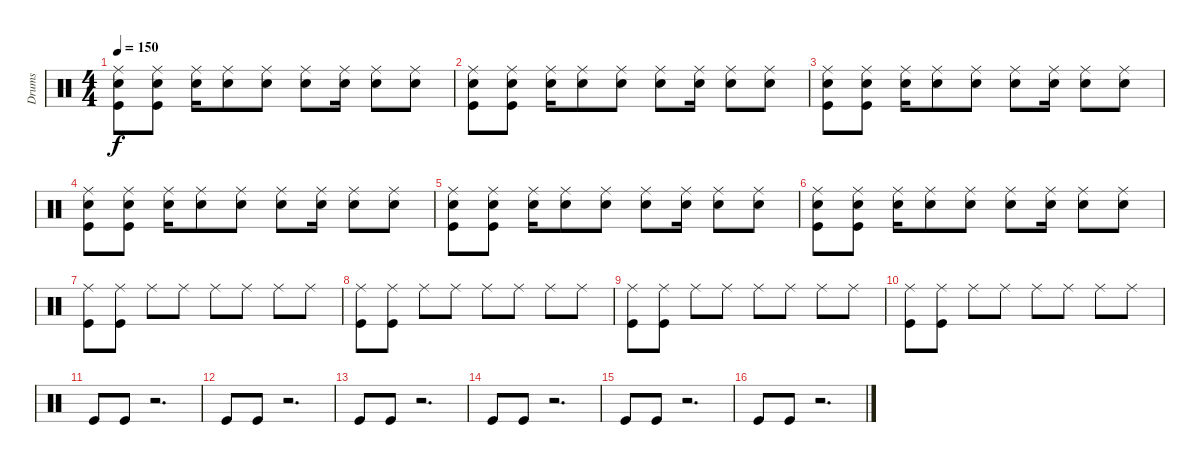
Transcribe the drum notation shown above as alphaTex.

\track ("Drums" "Drums") {instrument percussion}
\staff {score}
\articulation defaults
\ts (4 4)
\tempo 150
\clef neutral
\ks c
("Ride (middle)" "Electric Snare (hit)" "Kick (hit)").8{dy f} ("Ride (middle)" "Electric Snare (hit)" "Kick (hit)").8 ("Ride (middle)" "Electric Snare (hit)").16 ("Ride (middle)" "Electric Snare (hit)").8 ("Ride (middle)" "Electric Snare (hit)").8 ("Ride (middle)" "Electric Snare (hit)").8 ("Ride (middle)" "Electric Snare (hit)").16 ("Ride (middle)" "Electric Snare (hit)").8 ("Ride (middle)" "Electric Snare (hit)").8 |
("Ride (middle)" "Electric Snare (hit)" "Kick (hit)").8 ("Ride (middle)" "Electric Snare (hit)" "Kick (hit)").8 ("Ride (middle)" "Electric Snare (hit)").16 ("Ride (middle)" "Electric Snare (hit)").8 ("Ride (middle)" "Electric Snare (hit)").8 ("Ride (middle)" "Electric Snare (hit)").8 ("Ride (middle)" "Electric Snare (hit)").16 ("Ride (middle)" "Electric Snare (hit)").8 ("Ride (middle)" "Electric Snare (hit)").8 |
("Ride (middle)" "Electric Snare (hit)" "Kick (hit)").8 ("Ride (middle)" "Electric Snare (hit)" "Kick (hit)").8 ("Ride (middle)" "Electric Snare (hit)").16 ("Ride (middle)" "Electric Snare (hit)").8 ("Ride (middle)" "Electric Snare (hit)").8 ("Ride (middle)" "Electric Snare (hit)").8 ("Ride (middle)" "Electric Snare (hit)").16 ("Ride (middle)" "Electric Snare (hit)").8 ("Ride (middle)" "Electric Snare (hit)").8 |
("Ride (middle)" "Electric Snare (hit)" "Kick (hit)").8 ("Ride (middle)" "Electric Snare (hit)" "Kick (hit)").8 ("Ride (middle)" "Electric Snare (hit)").16 ("Ride (middle)" "Electric Snare (hit)").8 ("Ride (middle)" "Electric Snare (hit)").8 ("Ride (middle)" "Electric Snare (hit)").8 ("Ride (middle)" "Electric Snare (hit)").16 ("Ride (middle)" "Electric Snare (hit)").8 ("Ride (middle)" "Electric Snare (hit)").8 |
("Ride (middle)" "Electric Snare (hit)" "Kick (hit)").8 ("Ride (middle)" "Electric Snare (hit)" "Kick (hit)").8 ("Ride (middle)" "Electric Snare (hit)").16 ("Ride (middle)" "Electric Snare (hit)").8 ("Ride (middle)" "Electric Snare (hit)").8 ("Ride (middle)" "Electric Snare (hit)").8 ("Ride (middle)" "Electric Snare (hit)").16 ("Ride (middle)" "Electric Snare (hit)").8 ("Ride (middle)" "Electric Snare (hit)").8 |
("Ride (middle)" "Electric Snare (hit)" "Kick (hit)").8 ("Ride (middle)" "Electric Snare (hit)" "Kick (hit)").8 ("Ride (middle)" "Electric Snare (hit)").16 ("Ride (middle)" "Electric Snare (hit)").8 ("Ride (middle)" "Electric Snare (hit)").8 ("Ride (middle)" "Electric Snare (hit)").8 ("Ride (middle)" "Electric Snare (hit)").16 ("Ride (middle)" "Electric Snare (hit)").8 ("Ride (middle)" "Electric Snare (hit)").8 |
("Ride (middle)" "Kick (hit)").8 ("Ride (middle)" "Kick (hit)").8 "Ride (middle)".8 "Ride (middle)".8 "Ride (middle)".8 "Ride (middle)".8 "Ride (middle)".8 "Ride (middle)".8 |
("Ride (middle)" "Kick (hit)").8 ("Ride (middle)" "Kick (hit)").8 "Ride (middle)".8 "Ride (middle)".8 "Ride (middle)".8 "Ride (middle)".8 "Ride (middle)".8 "Ride (middle)".8 |
("Ride (middle)" "Kick (hit)").8 ("Ride (middle)" "Kick (hit)").8 "Ride (middle)".8 "Ride (middle)".8 "Ride (middle)".8 "Ride (middle)".8 "Ride (middle)".8 "Ride (middle)".8 |
("Ride (middle)" "Kick (hit)").8 ("Ride (middle)" "Kick (hit)").8 "Ride (middle)".8 "Ride (middle)".8 "Ride (middle)".8 "Ride (middle)".8 "Ride (middle)".8 "Ride (middle)".8 |
"Kick (hit)".8 "Kick (hit)".8 r.2{d} |
"Kick (hit)".8 "Kick (hit)".8 r.2{d} |
"Kick (hit)".8 "Kick (hit)".8 r.2{d} |
"Kick (hit)".8 "Kick (hit)".8 r.2{d} |
"Kick (hit)".8 "Kick (hit)".8 r.2{d} |
"Kick (hit)".8 "Kick (hit)".8 r.2{d}
